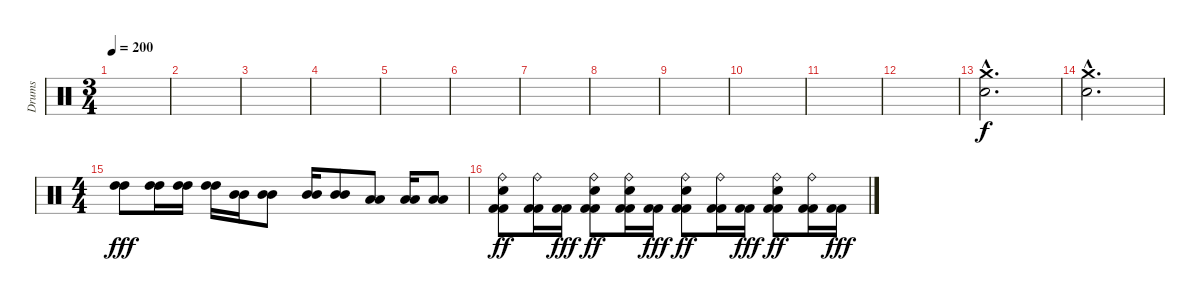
\track ("Drums" "Drums") {instrument percussion}
\staff {score}
\articulation defaults
\ts (3 4)
\tempo 200
\clef neutral
\ks c
|
|
|
|
|
|
|
|
|
|
|
|
("Electric Snare (hit)"{hac} "Crash medium (hit)"{hac}).2{d} |
("Crash medium (hit)"{hac} "Electric Snare (hit)"{hac}).2{d} |
\ts (4 4)
("High Tom (hit)" "High Tom (hit)").8{dy fff} ("High Tom (hit)" "High Tom (hit)").16 ("High Tom (hit)" "High Tom (hit)").16 ("High Tom (hit)" "High Tom (hit)").16 ("Mid Tom (hit)" "Mid Tom (hit)").16 ("Mid Tom (hit)" "Mid Tom (hit)").8 ("Mid Tom (hit)" "Mid Tom (hit)").16 ("Mid Tom (hit)" "Mid Tom (hit)").8 ("Low Tom (hit)" "Low Tom (hit)").8 ("Low Tom (hit)" "Low Tom (hit)").16 ("Low Tom (hit)" "Low Tom (hit)").8 |
("Kick (hit) 2" "Kick (hit) 2" "Ride (bell)" "Electric Snare (hit)").8{dy ff} ("Kick (hit) 2" "Kick (hit) 2" "Ride (bell)").16 ("Kick (hit) 2" "Kick (hit) 2").16{dy fff} ("Kick (hit) 2" "Kick (hit) 2" "Ride (bell)" "Electric Snare (hit)").8{dy ff} ("Kick (hit) 2" "Kick (hit) 2" "Ride (bell)" "Electric Snare (hit)").16 ("Kick (hit) 2" "Kick (hit) 2").16{dy fff} ("Kick (hit) 2" "Kick (hit) 2" "Ride (bell)" "Electric Snare (hit)").8{dy ff} ("Kick (hit) 2" "Kick (hit) 2" "Ride (bell)").16 ("Kick (hit) 2" "Kick (hit) 2").16{dy fff} ("Kick (hit) 2" "Kick (hit) 2" "Ride (bell)" "Electric Snare (hit)").8{dy ff} ("Kick (hit) 2" "Kick (hit) 2" "Ride (bell)").16 ("Kick (hit) 2" "Kick (hit) 2").16{dy fff}
